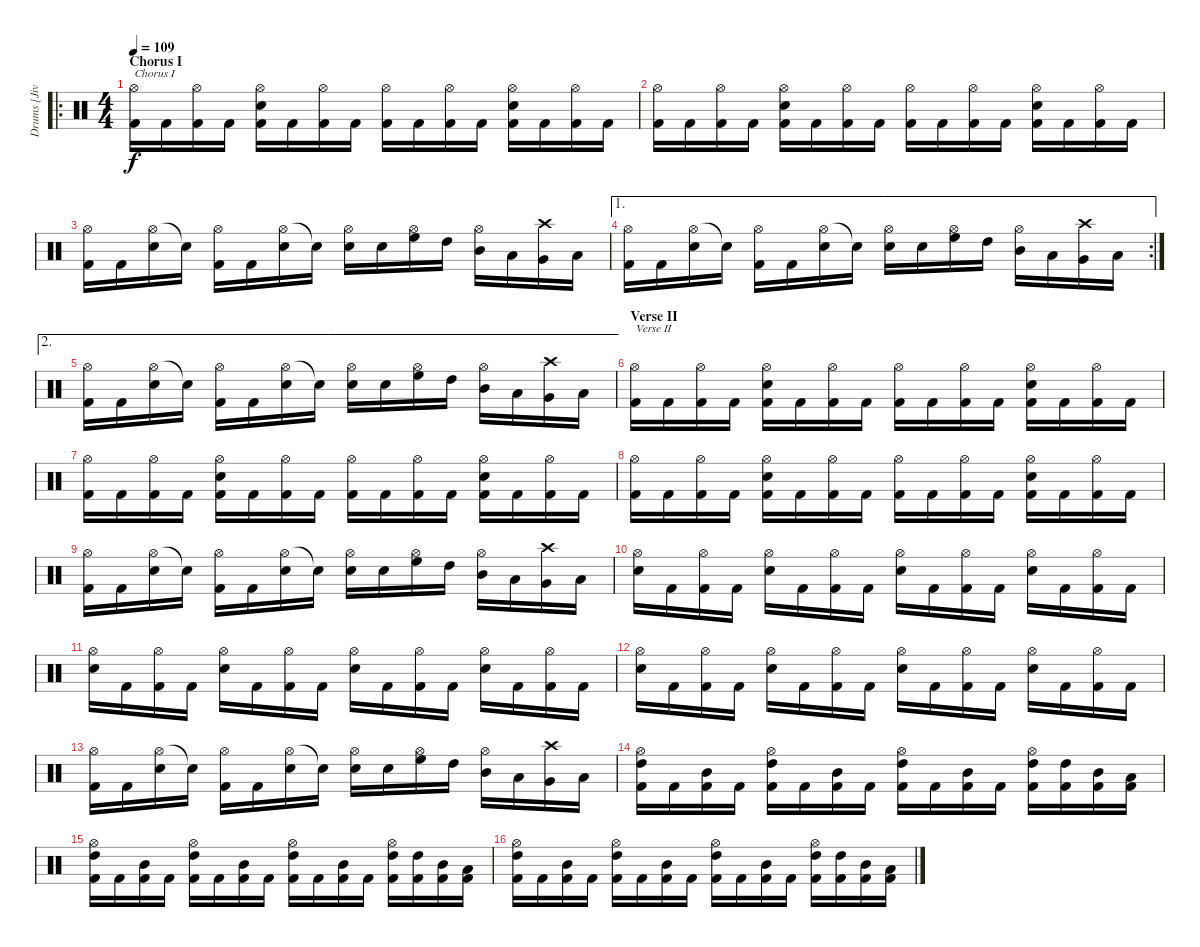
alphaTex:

\track ("Drums [Jivarp]" "Drums [Jiv") {instrument percussion}
\staff {score}
\articulation defaults
\ro
\ts (4 4)
\section ("" "Chorus I")
\tempo 109
\clef neutral
\ks c
("Hi-Hat (open)" "Kick (hit) 2").16{txt "Chorus I" dy f} "Kick (hit) 2".16 ("Hi-Hat (open)" "Kick (hit) 2").16 "Kick (hit) 2".16 ("Hi-Hat (open)" "Electric Snare (hit)" "Kick (hit) 2").16 "Kick (hit) 2".16 ("Hi-Hat (open)" "Kick (hit) 2").16 "Kick (hit) 2".16 ("Hi-Hat (open)" "Kick (hit) 2").16 "Kick (hit) 2".16 ("Hi-Hat (open)" "Kick (hit) 2").16 "Kick (hit) 2".16 ("Hi-Hat (open)" "Electric Snare (hit)" "Kick (hit) 2").16 "Kick (hit) 2".16 ("Hi-Hat (open)" "Kick (hit) 2").16 "Kick (hit) 2".16 |
("Hi-Hat (open)" "Kick (hit) 2").16 "Kick (hit) 2".16 ("Hi-Hat (open)" "Kick (hit) 2").16 "Kick (hit) 2".16 ("Hi-Hat (open)" "Electric Snare (hit)" "Kick (hit) 2").16 "Kick (hit) 2".16 ("Hi-Hat (open)" "Kick (hit) 2").16 "Kick (hit) 2".16 ("Hi-Hat (open)" "Kick (hit) 2").16 "Kick (hit) 2".16 ("Hi-Hat (open)" "Kick (hit) 2").16 "Kick (hit) 2".16 ("Hi-Hat (open)" "Electric Snare (hit)" "Kick (hit) 2").16 "Kick (hit) 2".16 ("Hi-Hat (open)" "Kick (hit) 2").16 "Kick (hit) 2".16 |
("Hi-Hat (open)" "Kick (hit) 2").16 "Kick (hit) 2".16 ("Hi-Hat (open)" "Electric Snare (hit)").16 "Electric Snare (hit)"{t}.16 ("Hi-Hat (open)" "Kick (hit) 2").16 "Kick (hit) 2".16 ("Hi-Hat (open)" "Electric Snare (hit)").16 "Electric Snare (hit)"{t}.16 ("Hi-Hat (open)" "Electric Snare (hit)").16 "Electric Snare (hit)".16 ("Hi-Hat (open)" "High Floor Tom (hit)").16 "High Tom (hit)".16 ("Hi-Hat (open)" "Mid Tom (hit)").16 "Low Tom (hit)".16 ("Crash high (hit)" "Very Low Tom (hit)").16 "Low Tom (hit)".16 |
\ae 1
\rc 2
("Hi-Hat (open)" "Kick (hit) 2").16 "Kick (hit) 2".16 ("Hi-Hat (open)" "Electric Snare (hit)").16 "Electric Snare (hit)"{t}.16 ("Hi-Hat (open)" "Kick (hit) 2").16 "Kick (hit) 2".16 ("Hi-Hat (open)" "Electric Snare (hit)").16 "Electric Snare (hit)"{t}.16 ("Hi-Hat (open)" "Electric Snare (hit)").16 "Electric Snare (hit)".16 ("Hi-Hat (open)" "High Floor Tom (hit)").16 "High Tom (hit)".16 ("Hi-Hat (open)" "Mid Tom (hit)").16 "Low Tom (hit)".16 ("Crash high (hit)" "Very Low Tom (hit)").16 "Low Tom (hit)".16 |
\ae 2
("Hi-Hat (open)" "Kick (hit) 2").16 "Kick (hit) 2".16 ("Hi-Hat (open)" "Electric Snare (hit)").16 "Electric Snare (hit)"{t}.16 ("Hi-Hat (open)" "Kick (hit) 2").16 "Kick (hit) 2".16 ("Hi-Hat (open)" "Electric Snare (hit)").16 "Electric Snare (hit)"{t}.16 ("Hi-Hat (open)" "Electric Snare (hit)").16 "Electric Snare (hit)".16 ("Hi-Hat (open)" "High Floor Tom (hit)").16 "High Tom (hit)".16 ("Hi-Hat (open)" "Mid Tom (hit)").16 "Low Tom (hit)".16 ("Crash high (hit)" "Very Low Tom (hit)").16 "Low Tom (hit)".16 |
\section ("" "Verse II")
("Hi-Hat (open)" "Kick (hit) 2").16{txt "Verse II"} "Kick (hit) 2".16 ("Hi-Hat (open)" "Kick (hit) 2").16 "Kick (hit) 2".16 ("Hi-Hat (open)" "Electric Snare (hit)" "Kick (hit) 2").16 "Kick (hit) 2".16 ("Hi-Hat (open)" "Kick (hit) 2").16 "Kick (hit) 2".16 ("Hi-Hat (open)" "Kick (hit) 2").16 "Kick (hit) 2".16 ("Hi-Hat (open)" "Kick (hit) 2").16 "Kick (hit) 2".16 ("Hi-Hat (open)" "Electric Snare (hit)" "Kick (hit) 2").16 "Kick (hit) 2".16 ("Hi-Hat (open)" "Kick (hit) 2").16 "Kick (hit) 2".16 |
("Hi-Hat (open)" "Kick (hit) 2").16 "Kick (hit) 2".16 ("Hi-Hat (open)" "Kick (hit) 2").16 "Kick (hit) 2".16 ("Hi-Hat (open)" "Electric Snare (hit)" "Kick (hit) 2").16 "Kick (hit) 2".16 ("Hi-Hat (open)" "Kick (hit) 2").16 "Kick (hit) 2".16 ("Hi-Hat (open)" "Kick (hit) 2").16 "Kick (hit) 2".16 ("Hi-Hat (open)" "Kick (hit) 2").16 "Kick (hit) 2".16 ("Hi-Hat (open)" "Electric Snare (hit)" "Kick (hit) 2").16 "Kick (hit) 2".16 ("Hi-Hat (open)" "Kick (hit) 2").16 "Kick (hit) 2".16 |
("Hi-Hat (open)" "Kick (hit) 2").16 "Kick (hit) 2".16 ("Hi-Hat (open)" "Kick (hit) 2").16 "Kick (hit) 2".16 ("Hi-Hat (open)" "Electric Snare (hit)" "Kick (hit) 2").16 "Kick (hit) 2".16 ("Hi-Hat (open)" "Kick (hit) 2").16 "Kick (hit) 2".16 ("Hi-Hat (open)" "Kick (hit) 2").16 "Kick (hit) 2".16 ("Hi-Hat (open)" "Kick (hit) 2").16 "Kick (hit) 2".16 ("Hi-Hat (open)" "Electric Snare (hit)" "Kick (hit) 2").16 "Kick (hit) 2".16 ("Hi-Hat (open)" "Kick (hit) 2").16 "Kick (hit) 2".16 |
("Hi-Hat (open)" "Kick (hit) 2").16 "Kick (hit) 2".16 ("Hi-Hat (open)" "Electric Snare (hit)").16 "Electric Snare (hit)"{t}.16 ("Hi-Hat (open)" "Kick (hit) 2").16 "Kick (hit) 2".16 ("Hi-Hat (open)" "Electric Snare (hit)").16 "Electric Snare (hit)"{t}.16 ("Hi-Hat (open)" "Electric Snare (hit)").16 "Electric Snare (hit)".16 ("Hi-Hat (open)" "High Floor Tom (hit)").16 "High Tom (hit)".16 ("Hi-Hat (open)" "Mid Tom (hit)").16 "Low Tom (hit)".16 ("Crash high (hit)" "Very Low Tom (hit)").16 "Low Tom (hit)".16 |
("Hi-Hat (open)" "Electric Snare (hit)").16 "Kick (hit) 2".16 ("Hi-Hat (open)" "Kick (hit) 2").16 "Kick (hit) 2".16 ("Hi-Hat (open)" "Electric Snare (hit)").16 "Kick (hit) 2".16 ("Hi-Hat (open)" "Kick (hit) 2").16 "Kick (hit) 2".16 ("Hi-Hat (open)" "Electric Snare (hit)").16 "Kick (hit) 2".16 ("Hi-Hat (open)" "Kick (hit) 2").16 "Kick (hit) 2".16 ("Hi-Hat (open)" "Electric Snare (hit)").16 "Kick (hit) 2".16 ("Hi-Hat (open)" "Kick (hit) 2").16 "Kick (hit) 2".16 |
("Hi-Hat (open)" "Electric Snare (hit)").16 "Kick (hit) 2".16 ("Hi-Hat (open)" "Kick (hit) 2").16 "Kick (hit) 2".16 ("Hi-Hat (open)" "Electric Snare (hit)").16 "Kick (hit) 2".16 ("Hi-Hat (open)" "Kick (hit) 2").16 "Kick (hit) 2".16 ("Hi-Hat (open)" "Electric Snare (hit)").16 "Kick (hit) 2".16 ("Hi-Hat (open)" "Kick (hit) 2").16 "Kick (hit) 2".16 ("Hi-Hat (open)" "Electric Snare (hit)").16 "Kick (hit) 2".16 ("Hi-Hat (open)" "Kick (hit) 2").16 "Kick (hit) 2".16 |
("Hi-Hat (open)" "Electric Snare (hit)").16 "Kick (hit) 2".16 ("Hi-Hat (open)" "Kick (hit) 2").16 "Kick (hit) 2".16 ("Hi-Hat (open)" "Electric Snare (hit)").16 "Kick (hit) 2".16 ("Hi-Hat (open)" "Kick (hit) 2").16 "Kick (hit) 2".16 ("Hi-Hat (open)" "Electric Snare (hit)").16 "Kick (hit) 2".16 ("Hi-Hat (open)" "Kick (hit) 2").16 "Kick (hit) 2".16 ("Hi-Hat (open)" "Electric Snare (hit)").16 "Kick (hit) 2".16 ("Hi-Hat (open)" "Kick (hit) 2").16 "Kick (hit) 2".16 |
("Hi-Hat (open)" "Kick (hit) 2").16 "Kick (hit) 2".16 ("Hi-Hat (open)" "Electric Snare (hit)").16 "Electric Snare (hit)"{t}.16 ("Hi-Hat (open)" "Kick (hit) 2").16 "Kick (hit) 2".16 ("Hi-Hat (open)" "Electric Snare (hit)").16 "Electric Snare (hit)"{t}.16 ("Hi-Hat (open)" "Electric Snare (hit)").16 "Electric Snare (hit)".16 ("Hi-Hat (open)" "High Floor Tom (hit)").16 "High Tom (hit)".16 ("Hi-Hat (open)" "Mid Tom (hit)").16 "Low Tom (hit)".16 ("Crash high (hit)" "Very Low Tom (hit)").16 "Low Tom (hit)".16 |
("Hi-Hat (open)" "High Tom (hit)" "Kick (hit) 2").16 "Kick (hit) 2".16 ("Mid Tom (hit)" "Kick (hit) 2").16 "Kick (hit) 2".16 ("Hi-Hat (open)" "High Tom (hit)" "Kick (hit) 2").16 "Kick (hit) 2".16 ("Mid Tom (hit)" "Kick (hit) 2").16 "Kick (hit) 2".16 ("Hi-Hat (open)" "High Tom (hit)" "Kick (hit) 2").16 "Kick (hit) 2".16 ("Mid Tom (hit)" "Kick (hit) 2").16 "Kick (hit) 2".16 ("Hi-Hat (open)" "High Tom (hit)" "Kick (hit) 2").16 ("High Tom (hit)" "Kick (hit) 2").16 ("Mid Tom (hit)" "Kick (hit) 2").16 ("Low Tom (hit)" "Kick (hit) 2").16 |
("Hi-Hat (open)" "High Tom (hit)" "Kick (hit) 2").16 "Kick (hit) 2".16 ("Mid Tom (hit)" "Kick (hit) 2").16 "Kick (hit) 2".16 ("Hi-Hat (open)" "High Tom (hit)" "Kick (hit) 2").16 "Kick (hit) 2".16 ("Mid Tom (hit)" "Kick (hit) 2").16 "Kick (hit) 2".16 ("Hi-Hat (open)" "High Tom (hit)" "Kick (hit) 2").16 "Kick (hit) 2".16 ("Mid Tom (hit)" "Kick (hit) 2").16 "Kick (hit) 2".16 ("Hi-Hat (open)" "High Tom (hit)" "Kick (hit) 2").16 ("High Tom (hit)" "Kick (hit) 2").16 ("Mid Tom (hit)" "Kick (hit) 2").16 ("Low Tom (hit)" "Kick (hit) 2").16 |
("Hi-Hat (open)" "High Tom (hit)" "Kick (hit) 2").16 "Kick (hit) 2".16 ("Mid Tom (hit)" "Kick (hit) 2").16 "Kick (hit) 2".16 ("Hi-Hat (open)" "High Tom (hit)" "Kick (hit) 2").16 "Kick (hit) 2".16 ("Mid Tom (hit)" "Kick (hit) 2").16 "Kick (hit) 2".16 ("Hi-Hat (open)" "High Tom (hit)" "Kick (hit) 2").16 "Kick (hit) 2".16 ("Mid Tom (hit)" "Kick (hit) 2").16 "Kick (hit) 2".16 ("Hi-Hat (open)" "High Tom (hit)" "Kick (hit) 2").16 ("High Tom (hit)" "Kick (hit) 2").16 ("Mid Tom (hit)" "Kick (hit) 2").16 ("Low Tom (hit)" "Kick (hit) 2").16
